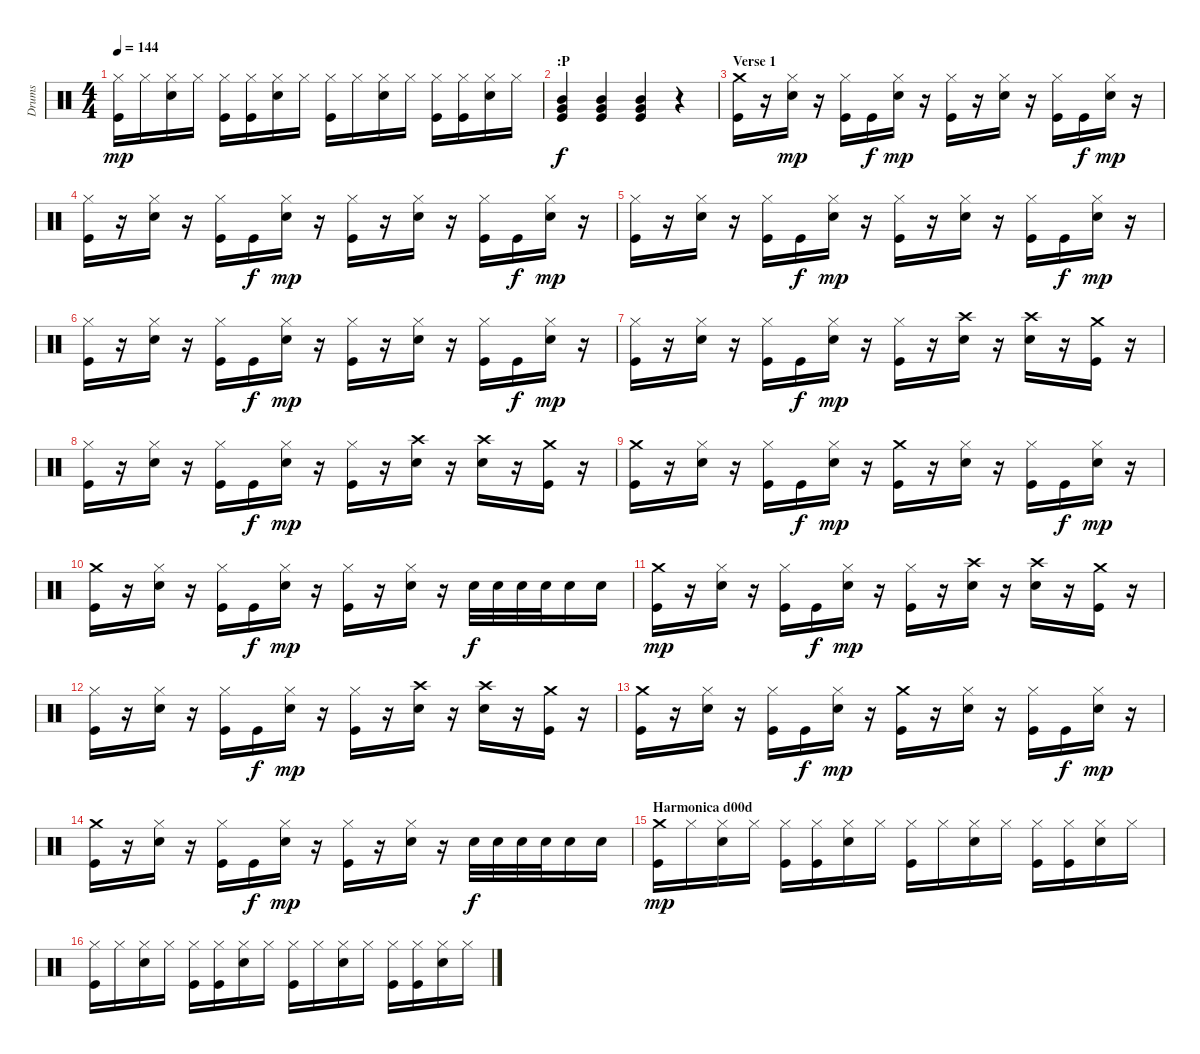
\track ("Drums" "Drums") {instrument percussion}
\staff {score}
\articulation defaults
\ts (4 4)
\tempo 144
\clef neutral
\ks c
("Hi-Hat (closed)" "Kick (hit)").16{dy mp} "Hi-Hat (closed)".16 ("Hi-Hat (closed)" "Electric Snare (hit)").16 "Hi-Hat (closed)".16 ("Hi-Hat (closed)" "Kick (hit)").16 ("Hi-Hat (closed)" "Kick (hit)").16 ("Hi-Hat (closed)" "Electric Snare (hit)").16 "Hi-Hat (closed)".16 ("Hi-Hat (closed)" "Kick (hit)").16 "Hi-Hat (closed)".16 ("Hi-Hat (closed)" "Electric Snare (hit)").16 "Hi-Hat (closed)".16 ("Hi-Hat (closed)" "Kick (hit)").16 ("Hi-Hat (closed)" "Kick (hit)").16 ("Hi-Hat (closed)" "Electric Snare (hit)").16 "Hi-Hat (closed)".16 |
\section ("" ":P")
("Mid Tom (hit)" "Very Low Tom (hit)" "Kick (hit)").4{dy f} ("Mid Tom (hit)" "Very Low Tom (hit)" "Kick (hit)").4 ("Mid Tom (hit)" "Very Low Tom (hit)" "Kick (hit)").4 r.4 |
\section ("" "Verse 1")
("Crash medium (hit)" "Kick (hit)").16 r.16 ("Hi-Hat (closed)" "Electric Snare (hit)").16{dy mp} r.16 ("Hi-Hat (closed)" "Kick (hit)").16 "Kick (hit)".16{dy f} ("Hi-Hat (closed)" "Electric Snare (hit)").16{dy mp} r.16 ("Hi-Hat (closed)" "Kick (hit)").16 r.16 ("Hi-Hat (closed)" "Electric Snare (hit)").16 r.16 ("Hi-Hat (closed)" "Kick (hit)").16 "Kick (hit)".16{dy f} ("Hi-Hat (closed)" "Electric Snare (hit)").16{dy mp} r.16 |
("Hi-Hat (closed)" "Kick (hit)").16 r.16 ("Hi-Hat (closed)" "Electric Snare (hit)").16 r.16 ("Hi-Hat (closed)" "Kick (hit)").16 "Kick (hit)".16{dy f} ("Hi-Hat (closed)" "Electric Snare (hit)").16{dy mp} r.16 ("Hi-Hat (closed)" "Kick (hit)").16 r.16 ("Hi-Hat (closed)" "Electric Snare (hit)").16 r.16 ("Hi-Hat (closed)" "Kick (hit)").16 "Kick (hit)".16{dy f} ("Hi-Hat (closed)" "Electric Snare (hit)").16{dy mp} r.16 |
("Hi-Hat (closed)" "Kick (hit)").16 r.16 ("Hi-Hat (closed)" "Electric Snare (hit)").16 r.16 ("Hi-Hat (closed)" "Kick (hit)").16 "Kick (hit)".16{dy f} ("Hi-Hat (closed)" "Electric Snare (hit)").16{dy mp} r.16 ("Hi-Hat (closed)" "Kick (hit)").16 r.16 ("Hi-Hat (closed)" "Electric Snare (hit)").16 r.16 ("Hi-Hat (closed)" "Kick (hit)").16 "Kick (hit)".16{dy f} ("Hi-Hat (closed)" "Electric Snare (hit)").16{dy mp} r.16 |
("Hi-Hat (closed)" "Kick (hit)").16 r.16 ("Hi-Hat (closed)" "Electric Snare (hit)").16 r.16 ("Hi-Hat (closed)" "Kick (hit)").16 "Kick (hit)".16{dy f} ("Hi-Hat (closed)" "Electric Snare (hit)").16{dy mp} r.16 ("Hi-Hat (closed)" "Kick (hit)").16 r.16 ("Hi-Hat (closed)" "Electric Snare (hit)").16 r.16 ("Hi-Hat (closed)" "Kick (hit)").16 "Kick (hit)".16{dy f} ("Hi-Hat (closed)" "Electric Snare (hit)").16{dy mp} r.16 |
("Hi-Hat (closed)" "Kick (hit)").16 r.16 ("Hi-Hat (closed)" "Electric Snare (hit)").16 r.16 ("Hi-Hat (closed)" "Kick (hit)").16 "Kick (hit)".16{dy f} ("Hi-Hat (closed)" "Electric Snare (hit)").16{dy mp} r.16 ("Hi-Hat (closed)" "Kick (hit)").16 r.16 ("Crash high (hit)" "Electric Snare (hit)").16 r.16 ("Crash high (hit)" "Electric Snare (hit)").16 r.16 ("Crash medium (hit)" "Kick (hit)").16 r.16 |
("Hi-Hat (closed)" "Kick (hit)").16 r.16 ("Hi-Hat (closed)" "Electric Snare (hit)").16 r.16 ("Hi-Hat (closed)" "Kick (hit)").16 "Kick (hit)".16{dy f} ("Hi-Hat (closed)" "Electric Snare (hit)").16{dy mp} r.16 ("Hi-Hat (closed)" "Kick (hit)").16 r.16 ("Crash high (hit)" "Electric Snare (hit)").16 r.16 ("Crash high (hit)" "Electric Snare (hit)").16 r.16 ("Crash medium (hit)" "Kick (hit)").16 r.16 |
("Crash medium (hit)" "Kick (hit)").16 r.16 ("Hi-Hat (closed)" "Electric Snare (hit)").16 r.16 ("Hi-Hat (closed)" "Kick (hit)").16 "Kick (hit)".16{dy f} ("Hi-Hat (closed)" "Electric Snare (hit)").16{dy mp} r.16 ("Crash medium (hit)" "Kick (hit)").16 r.16 ("Hi-Hat (closed)" "Electric Snare (hit)").16 r.16 ("Hi-Hat (closed)" "Kick (hit)").16 "Kick (hit)".16{dy f} ("Hi-Hat (closed)" "Electric Snare (hit)").16{dy mp} r.16 |
("Crash medium (hit)" "Kick (hit)").16 r.16 ("Hi-Hat (closed)" "Electric Snare (hit)").16 r.16 ("Hi-Hat (closed)" "Kick (hit)").16 "Kick (hit)".16{dy f} ("Hi-Hat (closed)" "Electric Snare (hit)").16{dy mp} r.16 ("Hi-Hat (closed)" "Kick (hit)").16 r.16 ("Hi-Hat (closed)" "Electric Snare (hit)").16 r.16 "Electric Snare (hit)".32{dy f} "Electric Snare (hit)".32 "Electric Snare (hit)".32 "Electric Snare (hit)".32 "Electric Snare (hit)".16 "Electric Snare (hit)".16 |
("Crash medium (hit)" "Kick (hit)").16{dy mp} r.16 ("Hi-Hat (closed)" "Electric Snare (hit)").16 r.16 ("Hi-Hat (closed)" "Kick (hit)").16 "Kick (hit)".16{dy f} ("Hi-Hat (closed)" "Electric Snare (hit)").16{dy mp} r.16 ("Hi-Hat (closed)" "Kick (hit)").16 r.16 ("Crash high (hit)" "Electric Snare (hit)").16 r.16 ("Crash high (hit)" "Electric Snare (hit)").16 r.16 ("Crash medium (hit)" "Kick (hit)").16 r.16 |
("Hi-Hat (closed)" "Kick (hit)").16 r.16 ("Hi-Hat (closed)" "Electric Snare (hit)").16 r.16 ("Hi-Hat (closed)" "Kick (hit)").16 "Kick (hit)".16{dy f} ("Hi-Hat (closed)" "Electric Snare (hit)").16{dy mp} r.16 ("Hi-Hat (closed)" "Kick (hit)").16 r.16 ("Crash high (hit)" "Electric Snare (hit)").16 r.16 ("Crash high (hit)" "Electric Snare (hit)").16 r.16 ("Crash medium (hit)" "Kick (hit)").16 r.16 |
("Crash medium (hit)" "Kick (hit)").16 r.16 ("Hi-Hat (closed)" "Electric Snare (hit)").16 r.16 ("Hi-Hat (closed)" "Kick (hit)").16 "Kick (hit)".16{dy f} ("Hi-Hat (closed)" "Electric Snare (hit)").16{dy mp} r.16 ("Crash medium (hit)" "Kick (hit)").16 r.16 ("Hi-Hat (closed)" "Electric Snare (hit)").16 r.16 ("Hi-Hat (closed)" "Kick (hit)").16 "Kick (hit)".16{dy f} ("Hi-Hat (closed)" "Electric Snare (hit)").16{dy mp} r.16 |
("Crash medium (hit)" "Kick (hit)").16 r.16 ("Hi-Hat (closed)" "Electric Snare (hit)").16 r.16 ("Hi-Hat (closed)" "Kick (hit)").16 "Kick (hit)".16{dy f} ("Hi-Hat (closed)" "Electric Snare (hit)").16{dy mp} r.16 ("Hi-Hat (closed)" "Kick (hit)").16 r.16 ("Hi-Hat (closed)" "Electric Snare (hit)").16 r.16 "Electric Snare (hit)".32{dy f} "Electric Snare (hit)".32 "Electric Snare (hit)".32 "Electric Snare (hit)".32 "Electric Snare (hit)".16 "Electric Snare (hit)".16 |
\section ("" "Harmonica d00d")
("Crash medium (hit)" "Kick (hit)").16{dy mp} "Hi-Hat (closed)".16 ("Hi-Hat (closed)" "Electric Snare (hit)").16 "Hi-Hat (closed)".16 ("Hi-Hat (closed)" "Kick (hit)").16 ("Hi-Hat (closed)" "Kick (hit)").16 ("Hi-Hat (closed)" "Electric Snare (hit)").16 "Hi-Hat (closed)".16 ("Hi-Hat (closed)" "Kick (hit)").16 "Hi-Hat (closed)".16 ("Hi-Hat (closed)" "Electric Snare (hit)").16 "Hi-Hat (closed)".16 ("Hi-Hat (closed)" "Kick (hit)").16 ("Hi-Hat (closed)" "Kick (hit)").16 ("Hi-Hat (closed)" "Electric Snare (hit)").16 "Hi-Hat (closed)".16 |
("Hi-Hat (closed)" "Kick (hit)").16 "Hi-Hat (closed)".16 ("Hi-Hat (closed)" "Electric Snare (hit)").16 "Hi-Hat (closed)".16 ("Hi-Hat (closed)" "Kick (hit)").16 ("Hi-Hat (closed)" "Kick (hit)").16 ("Hi-Hat (closed)" "Electric Snare (hit)").16 "Hi-Hat (closed)".16 ("Hi-Hat (closed)" "Kick (hit)").16 "Hi-Hat (closed)".16 ("Hi-Hat (closed)" "Electric Snare (hit)").16 "Hi-Hat (closed)".16 ("Hi-Hat (closed)" "Kick (hit)").16 ("Hi-Hat (closed)" "Kick (hit)").16 ("Hi-Hat (closed)" "Electric Snare (hit)").16 "Hi-Hat (closed)".16
